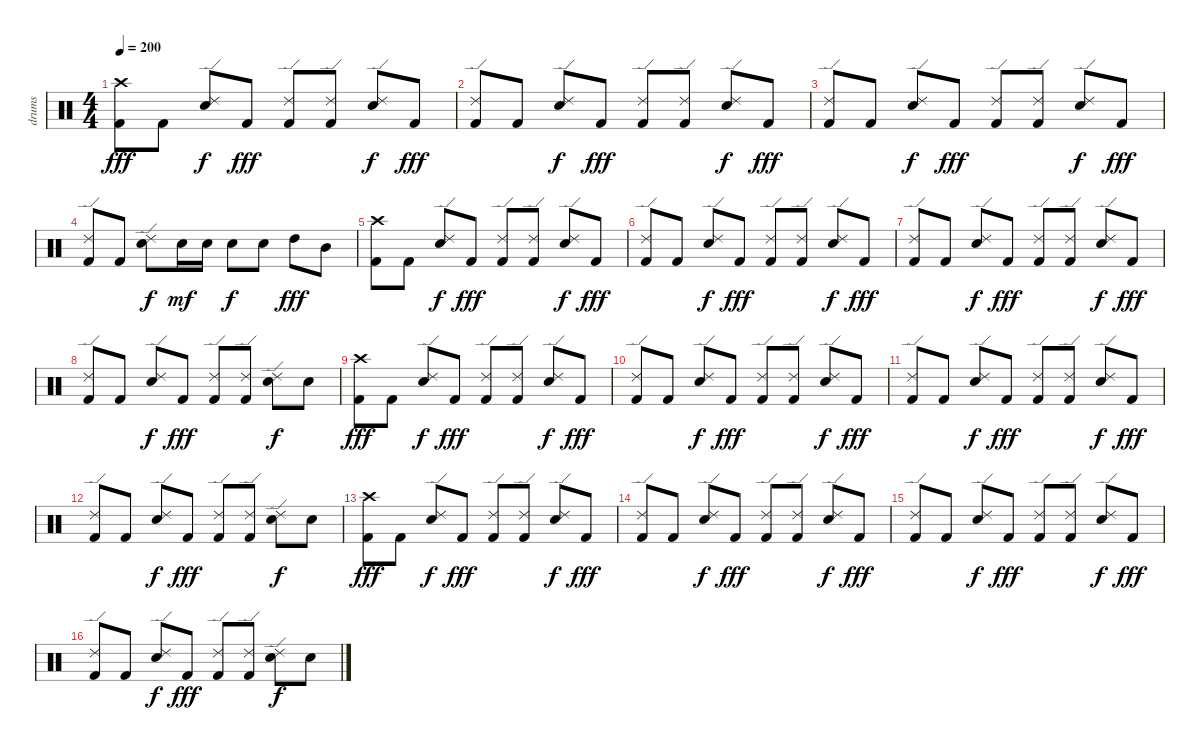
\track ("drums" "drums") {instrument percussion}
\staff {score}
\articulation defaults
\ts (4 4)
\tempo 200
\clef neutral
\ks c
("Crash high (hit)" "Kick (hit) 2").8{dy fff} "Kick (hit) 2".8 ("Ride (edge) 2" "Snare (hit) 2").8{dy f} "Kick (hit) 2".8{dy fff} ("Ride (edge) 2" "Kick (hit) 2").8 ("Ride (edge) 2" "Kick (hit) 2").8 ("Ride (edge) 2" "Snare (hit) 2").8{dy f} "Kick (hit) 2".8{dy fff} |
("Ride (edge) 2" "Kick (hit) 2").8 "Kick (hit) 2".8 ("Ride (edge) 2" "Snare (hit) 2").8{dy f} "Kick (hit) 2".8{dy fff} ("Ride (edge) 2" "Kick (hit) 2").8 ("Ride (edge) 2" "Kick (hit) 2").8 ("Ride (edge) 2" "Snare (hit) 2").8{dy f} "Kick (hit) 2".8{dy fff} |
("Ride (edge) 2" "Kick (hit) 2").8 "Kick (hit) 2".8 ("Ride (edge) 2" "Snare (hit) 2").8{dy f} "Kick (hit) 2".8{dy fff} ("Ride (edge) 2" "Kick (hit) 2").8 ("Ride (edge) 2" "Kick (hit) 2").8 ("Ride (edge) 2" "Snare (hit) 2").8{dy f} "Kick (hit) 2".8{dy fff} |
("Ride (edge) 2" "Kick (hit) 2").8 "Kick (hit) 2".8 ("Ride (edge) 2" "Snare (hit) 2").8{dy f} "Snare (hit) 2".16{dy mf} "Snare (hit) 2".16 "Snare (hit) 2".8{dy f} "Snare (hit) 2".8 "High Tom (hit)".8{dy fff} "Mid Tom (hit)".8 |
("Crash high (hit)" "Kick (hit) 2").8 "Kick (hit) 2".8 ("Ride (edge) 2" "Snare (hit) 2").8{dy f} "Kick (hit) 2".8{dy fff} ("Ride (edge) 2" "Kick (hit) 2").8 ("Ride (edge) 2" "Kick (hit) 2").8 ("Ride (edge) 2" "Snare (hit) 2").8{dy f} "Kick (hit) 2".8{dy fff} |
("Ride (edge) 2" "Kick (hit) 2").8 "Kick (hit) 2".8 ("Ride (edge) 2" "Snare (hit) 2").8{dy f} "Kick (hit) 2".8{dy fff} ("Ride (edge) 2" "Kick (hit) 2").8 ("Ride (edge) 2" "Kick (hit) 2").8 ("Ride (edge) 2" "Snare (hit) 2").8{dy f} "Kick (hit) 2".8{dy fff} |
("Ride (edge) 2" "Kick (hit) 2").8 "Kick (hit) 2".8 ("Ride (edge) 2" "Snare (hit) 2").8{dy f} "Kick (hit) 2".8{dy fff} ("Ride (edge) 2" "Kick (hit) 2").8 ("Ride (edge) 2" "Kick (hit) 2").8 ("Ride (edge) 2" "Snare (hit) 2").8{dy f} "Kick (hit) 2".8{dy fff} |
("Ride (edge) 2" "Kick (hit) 2").8 "Kick (hit) 2".8 ("Ride (edge) 2" "Snare (hit) 2").8{dy f} "Kick (hit) 2".8{dy fff} ("Ride (edge) 2" "Kick (hit) 2").8 ("Ride (edge) 2" "Kick (hit) 2").8 ("Ride (edge) 2" "Snare (hit) 2").8{dy f} "Snare (hit) 2".8 |
("Crash high (hit)" "Kick (hit) 2").8{dy fff} "Kick (hit) 2".8 ("Ride (edge) 2" "Snare (hit) 2").8{dy f} "Kick (hit) 2".8{dy fff} ("Ride (edge) 2" "Kick (hit) 2").8 ("Ride (edge) 2" "Kick (hit) 2").8 ("Ride (edge) 2" "Snare (hit) 2").8{dy f} "Kick (hit) 2".8{dy fff} |
("Ride (edge) 2" "Kick (hit) 2").8 "Kick (hit) 2".8 ("Ride (edge) 2" "Snare (hit) 2").8{dy f} "Kick (hit) 2".8{dy fff} ("Ride (edge) 2" "Kick (hit) 2").8 ("Ride (edge) 2" "Kick (hit) 2").8 ("Ride (edge) 2" "Snare (hit) 2").8{dy f} "Kick (hit) 2".8{dy fff} |
("Ride (edge) 2" "Kick (hit) 2").8 "Kick (hit) 2".8 ("Ride (edge) 2" "Snare (hit) 2").8{dy f} "Kick (hit) 2".8{dy fff} ("Ride (edge) 2" "Kick (hit) 2").8 ("Ride (edge) 2" "Kick (hit) 2").8 ("Ride (edge) 2" "Snare (hit) 2").8{dy f} "Kick (hit) 2".8{dy fff} |
("Ride (edge) 2" "Kick (hit) 2").8 "Kick (hit) 2".8 ("Ride (edge) 2" "Snare (hit) 2").8{dy f} "Kick (hit) 2".8{dy fff} ("Ride (edge) 2" "Kick (hit) 2").8 ("Ride (edge) 2" "Kick (hit) 2").8 ("Ride (edge) 2" "Snare (hit) 2").8{dy f} "Snare (hit) 2".8 |
("Crash high (hit)" "Kick (hit) 2").8{dy fff} "Kick (hit) 2".8 ("Ride (edge) 2" "Snare (hit) 2").8{dy f} "Kick (hit) 2".8{dy fff} ("Ride (edge) 2" "Kick (hit) 2").8 ("Ride (edge) 2" "Kick (hit) 2").8 ("Ride (edge) 2" "Snare (hit) 2").8{dy f} "Kick (hit) 2".8{dy fff} |
("Ride (edge) 2" "Kick (hit) 2").8 "Kick (hit) 2".8 ("Ride (edge) 2" "Snare (hit) 2").8{dy f} "Kick (hit) 2".8{dy fff} ("Ride (edge) 2" "Kick (hit) 2").8 ("Ride (edge) 2" "Kick (hit) 2").8 ("Ride (edge) 2" "Snare (hit) 2").8{dy f} "Kick (hit) 2".8{dy fff} |
("Ride (edge) 2" "Kick (hit) 2").8 "Kick (hit) 2".8 ("Ride (edge) 2" "Snare (hit) 2").8{dy f} "Kick (hit) 2".8{dy fff} ("Ride (edge) 2" "Kick (hit) 2").8 ("Ride (edge) 2" "Kick (hit) 2").8 ("Ride (edge) 2" "Snare (hit) 2").8{dy f} "Kick (hit) 2".8{dy fff} |
("Ride (edge) 2" "Kick (hit) 2").8 "Kick (hit) 2".8 ("Ride (edge) 2" "Snare (hit) 2").8{dy f} "Kick (hit) 2".8{dy fff} ("Ride (edge) 2" "Kick (hit) 2").8 ("Ride (edge) 2" "Kick (hit) 2").8 ("Ride (edge) 2" "Snare (hit) 2").8{dy f} "Snare (hit) 2".8
